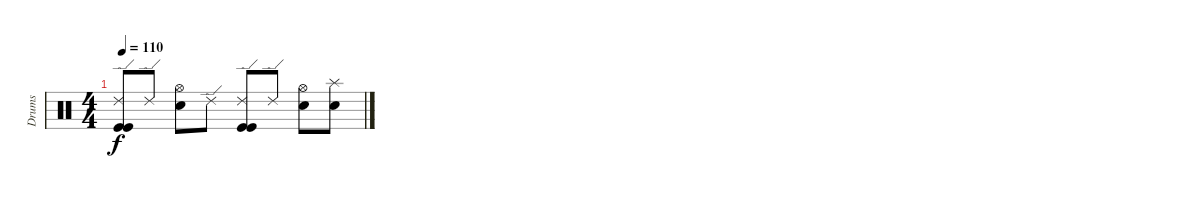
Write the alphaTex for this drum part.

\track ("Drums" "Drums") {instrument percussion}
\staff {score}
\articulation defaults
\ts (4 4)
\tempo 110
\clef neutral
\ks c
("Ride (edge) 2" "Kick (hit)" "Kick (hit)").8{dy f} "Ride (edge) 2".8 ("Hi-Hat (open)" "Snare (hit) 2").8 "Ride (edge) 2".8 ("Ride (edge) 2" "Kick (hit)" "Kick (hit)").8 "Ride (edge) 2".8 ("Hi-Hat (open)" "Snare (hit) 2").8 ("Splash (hit)" "Snare (hit) 2").8
